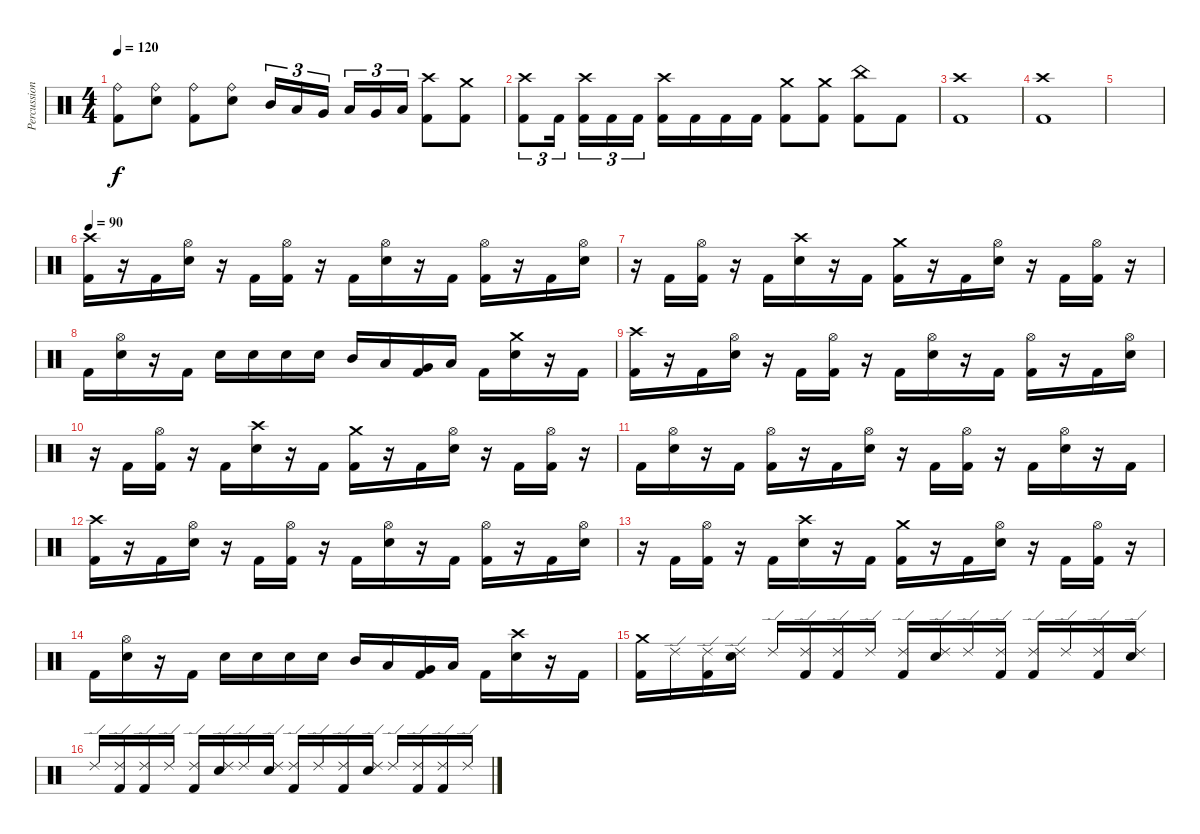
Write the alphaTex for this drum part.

\track ("Percussion" "Percussion") {instrument percussion}
\staff {score}
\articulation defaults
\ts (4 4)
\tempo 120
\clef neutral
\ks c
("Ride (bell)" "Kick (hit) 2").8{dy f} ("Ride (bell)" "Snare (hit) 2").8 ("Ride (bell)" "Kick (hit) 2").8 ("Ride (bell)" "Snare (hit) 2").8 "Mid Tom (hit)".16{tu (3 2)} "Low Tom (hit)".16{tu (3 2)} "Very Low Tom (hit)".16{tu (3 2) beam splitsecondary} "Low Tom (hit)".16{tu (3 2)} "Very Low Tom (hit)".16{tu (3 2)} "Low Floor Tom (hit)".16{tu (3 2)} ("Crash high (hit)" "Kick (hit) 2").8 ("Crash medium (hit)" "Kick (hit) 2").8 |
("Crash high (hit)" "Kick (hit) 2").8{tu (3 2)} "Kick (hit) 2".16{tu (3 2) beam splitsecondary} ("Crash high (hit)" "Kick (hit) 2").16{tu (3 2)} "Kick (hit) 2".16{tu (3 2)} "Kick (hit) 2".16{tu (3 2)} ("Crash high (hit)" "Kick (hit) 2").16 "Kick (hit) 2".16 "Kick (hit) 2".16 "Kick (hit) 2".16 ("Crash medium (hit)" "Kick (hit) 2").8 ("Crash medium (hit)" "Kick (hit) 2").8 ("China (hit)" "Kick (hit) 2").8 "Kick (hit) 2".8 |
("Crash high (hit)" "Kick (hit) 2").1 |
("Crash high (hit)" "Kick (hit) 2").1 |
|
\tempo 90
("Crash high (hit)" "Kick (hit) 2").16 r.16 "Kick (hit) 2".16 ("Hi-Hat (open)" "Snare (hit) 2").16 r.16 "Kick (hit) 2".16 ("Hi-Hat (open)" "Kick (hit) 2").16 r.16 "Kick (hit) 2".16 ("Hi-Hat (open)" "Snare (hit) 2").16 r.16 "Kick (hit) 2".16 ("Hi-Hat (open)" "Kick (hit) 2").16 r.16 "Kick (hit) 2".16 ("Hi-Hat (open)" "Snare (hit) 2").16 |
r.16 "Kick (hit) 2".16 ("Hi-Hat (open)" "Kick (hit) 2").16 r.16 "Kick (hit) 2".16 ("Crash high (hit)" "Snare (hit) 2").16 r.16 "Kick (hit) 2".16 ("Crash medium (hit)" "Kick (hit) 2").16 r.16 "Kick (hit) 2".16 ("Hi-Hat (open)" "Snare (hit) 2").16 r.16 "Kick (hit) 2".16 ("Hi-Hat (open)" "Kick (hit) 2").16 r.16 |
"Kick (hit) 2".16 ("Hi-Hat (open)" "Snare (hit) 2").16 r.16 "Kick (hit) 2".16 "Snare (hit) 2".16 "Snare (hit) 2".16 "Snare (hit) 2".16 "Snare (hit) 2".16 "Mid Tom (hit)".16 "Low Tom (hit)".16 ("Very Low Tom (hit)" "Kick (hit) 2").16 "Low Floor Tom (hit)".16 "Kick (hit) 2".16 ("Crash medium (hit)" "Snare (hit) 2").16 r.16 "Kick (hit) 2".16 |
("Crash high (hit)" "Kick (hit) 2").16 r.16 "Kick (hit) 2".16 ("Hi-Hat (open)" "Snare (hit) 2").16 r.16 "Kick (hit) 2".16 ("Hi-Hat (open)" "Kick (hit) 2").16 r.16 "Kick (hit) 2".16 ("Hi-Hat (open)" "Snare (hit) 2").16 r.16 "Kick (hit) 2".16 ("Hi-Hat (open)" "Kick (hit) 2").16 r.16 "Kick (hit) 2".16 ("Hi-Hat (open)" "Snare (hit) 2").16 |
r.16 "Kick (hit) 2".16 ("Hi-Hat (open)" "Kick (hit) 2").16 r.16 "Kick (hit) 2".16 ("Crash high (hit)" "Snare (hit) 2").16 r.16 "Kick (hit) 2".16 ("Crash medium (hit)" "Kick (hit) 2").16 r.16 "Kick (hit) 2".16 ("Hi-Hat (open)" "Snare (hit) 2").16 r.16 "Kick (hit) 2".16 ("Hi-Hat (open)" "Kick (hit) 2").16 r.16 |
"Kick (hit) 2".16 ("Hi-Hat (open)" "Snare (hit) 2").16 r.16 "Kick (hit) 2".16 ("Hi-Hat (open)" "Kick (hit) 2").16 r.16 "Kick (hit) 2".16 ("Hi-Hat (open)" "Snare (hit) 2").16 r.16 "Kick (hit) 2".16 ("Hi-Hat (open)" "Kick (hit) 2").16 r.16 "Kick (hit) 2".16 ("Hi-Hat (open)" "Snare (hit) 2").16 r.16 "Kick (hit) 2".16 |
("Crash high (hit)" "Kick (hit) 2").16 r.16 "Kick (hit) 2".16 ("Hi-Hat (open)" "Snare (hit) 2").16 r.16 "Kick (hit) 2".16 ("Hi-Hat (open)" "Kick (hit) 2").16 r.16 "Kick (hit) 2".16 ("Hi-Hat (open)" "Snare (hit) 2").16 r.16 "Kick (hit) 2".16 ("Hi-Hat (open)" "Kick (hit) 2").16 r.16 "Kick (hit) 2".16 ("Hi-Hat (open)" "Snare (hit) 2").16 |
r.16 "Kick (hit) 2".16 ("Hi-Hat (open)" "Kick (hit) 2").16 r.16 "Kick (hit) 2".16 ("Crash high (hit)" "Snare (hit) 2").16 r.16 "Kick (hit) 2".16 ("Crash medium (hit)" "Kick (hit) 2").16 r.16 "Kick (hit) 2".16 ("Hi-Hat (open)" "Snare (hit) 2").16 r.16 "Kick (hit) 2".16 ("Hi-Hat (open)" "Kick (hit) 2").16 r.16 |
"Kick (hit) 2".16 ("Hi-Hat (open)" "Snare (hit) 2").16 r.16 "Kick (hit) 2".16 "Snare (hit) 2".16 "Snare (hit) 2".16 "Snare (hit) 2".16 "Snare (hit) 2".16 "Mid Tom (hit)".16 "Low Tom (hit)".16 ("Very Low Tom (hit)" "Kick (hit) 2").16 "Low Floor Tom (hit)".16 "Kick (hit) 2".16 ("Crash high (hit)" "Snare (hit) 2").16 r.16 "Kick (hit) 2".16 |
("Crash medium (hit)" "Kick (hit) 2").16 "Ride (edge) 2".16 ("Ride (edge) 2" "Kick (hit) 2").16 ("Ride (edge) 2" "Snare (hit) 2").16 "Ride (edge) 2".16 ("Ride (edge) 2" "Kick (hit) 2").16 ("Ride (edge) 2" "Kick (hit) 2").16 "Ride (edge) 2".16 ("Ride (edge) 2" "Kick (hit) 2").16 ("Ride (edge) 2" "Snare (hit) 2").16 "Ride (edge) 2".16 ("Ride (edge) 2" "Kick (hit) 2").16 ("Ride (edge) 2" "Kick (hit) 2").16 "Ride (edge) 2".16 ("Ride (edge) 2" "Kick (hit) 2").16 ("Ride (edge) 2" "Snare (hit) 2").16 |
"Ride (edge) 2".16 ("Ride (edge) 2" "Kick (hit) 2").16 ("Ride (edge) 2" "Kick (hit) 2").16 "Ride (edge) 2".16 ("Ride (edge) 2" "Kick (hit) 2").16 ("Ride (edge) 2" "Snare (hit) 2").16 "Ride (edge) 2".16 ("Ride (edge) 2" "Snare (hit) 2").16 ("Ride (edge) 2" "Kick (hit) 2").16 "Ride (edge) 2".16 ("Ride (edge) 2" "Kick (hit) 2").16 ("Ride (edge) 2" "Snare (hit) 2").16 "Ride (edge) 2".16 ("Ride (edge) 2" "Kick (hit) 2").16 ("Ride (edge) 2" "Kick (hit) 2").16 "Ride (edge) 2".16
